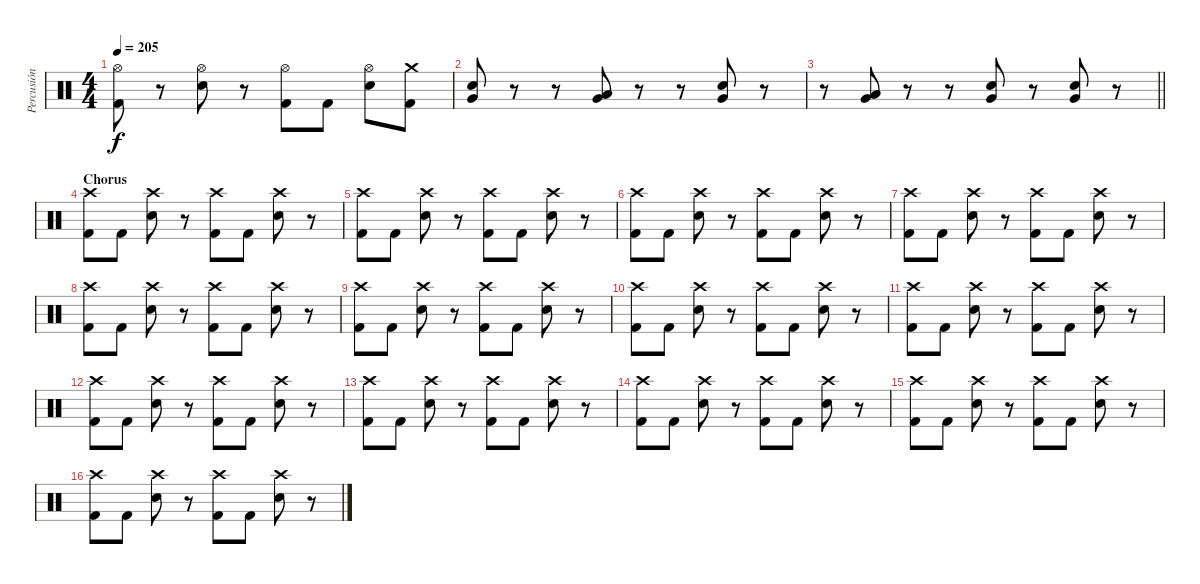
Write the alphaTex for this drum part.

\track ("Percusión" "Percusión") {instrument percussion}
\staff {score}
\articulation defaults
\ts (4 4)
\tempo 205
\clef neutral
\ks c
("Hi-Hat (open)" "Kick (hit) 2").8{dy f} r.8 ("Hi-Hat (open)" "Electric Snare (hit)").8 r.8 ("Hi-Hat (open)" "Kick (hit) 2").8 "Kick (hit) 2".8 ("Hi-Hat (open)" "Electric Snare (hit)").8 ("Crash medium (hit)" "Kick (hit) 2").8 |
("Very Low Tom (hit)" "Electric Snare (hit)").8 r.8 r.8 ("Low Tom (hit)" "Very Low Tom (hit)").8 r.8 r.8 ("Very Low Tom (hit)" "Electric Snare (hit)").8 r.8 |
\barLineRight lightlight
r.8 ("Low Tom (hit)" "Very Low Tom (hit)").8 r.8 r.8 ("Very Low Tom (hit)" "Electric Snare (hit)").8 r.8 ("Very Low Tom (hit)" "Electric Snare (hit)").8 r.8 |
\section ("" "Chorus")
("Crash high (hit)" "Kick (hit) 2").8 "Kick (hit) 2".8 ("Crash high (hit)" "Electric Snare (hit)").8 r.8 ("Crash high (hit)" "Kick (hit) 2").8 "Kick (hit) 2".8 ("Crash high (hit)" "Electric Snare (hit)").8 r.8 |
("Crash high (hit)" "Kick (hit) 2").8 "Kick (hit) 2".8 ("Crash high (hit)" "Electric Snare (hit)").8 r.8 ("Crash high (hit)" "Kick (hit) 2").8 "Kick (hit) 2".8 ("Crash high (hit)" "Electric Snare (hit)").8 r.8 |
("Crash high (hit)" "Kick (hit) 2").8 "Kick (hit) 2".8 ("Crash high (hit)" "Electric Snare (hit)").8 r.8 ("Crash high (hit)" "Kick (hit) 2").8 "Kick (hit) 2".8 ("Crash high (hit)" "Electric Snare (hit)").8 r.8 |
("Crash high (hit)" "Kick (hit) 2").8 "Kick (hit) 2".8 ("Crash high (hit)" "Electric Snare (hit)").8 r.8 ("Crash high (hit)" "Kick (hit) 2").8 "Kick (hit) 2".8 ("Crash high (hit)" "Electric Snare (hit)").8 r.8 |
("Crash high (hit)" "Kick (hit) 2").8 "Kick (hit) 2".8 ("Crash high (hit)" "Electric Snare (hit)").8 r.8 ("Crash high (hit)" "Kick (hit) 2").8 "Kick (hit) 2".8 ("Crash high (hit)" "Electric Snare (hit)").8 r.8 |
("Crash high (hit)" "Kick (hit) 2").8 "Kick (hit) 2".8 ("Crash high (hit)" "Electric Snare (hit)").8 r.8 ("Crash high (hit)" "Kick (hit) 2").8 "Kick (hit) 2".8 ("Crash high (hit)" "Electric Snare (hit)").8 r.8 |
("Crash high (hit)" "Kick (hit) 2").8 "Kick (hit) 2".8 ("Crash high (hit)" "Electric Snare (hit)").8 r.8 ("Crash high (hit)" "Kick (hit) 2").8 "Kick (hit) 2".8 ("Crash high (hit)" "Electric Snare (hit)").8 r.8 |
("Crash high (hit)" "Kick (hit) 2").8 "Kick (hit) 2".8 ("Crash high (hit)" "Electric Snare (hit)").8 r.8 ("Crash high (hit)" "Kick (hit) 2").8 "Kick (hit) 2".8 ("Crash high (hit)" "Electric Snare (hit)").8 r.8 |
("Crash high (hit)" "Kick (hit) 2").8 "Kick (hit) 2".8 ("Crash high (hit)" "Electric Snare (hit)").8 r.8 ("Crash high (hit)" "Kick (hit) 2").8 "Kick (hit) 2".8 ("Crash high (hit)" "Electric Snare (hit)").8 r.8 |
("Crash high (hit)" "Kick (hit) 2").8 "Kick (hit) 2".8 ("Crash high (hit)" "Electric Snare (hit)").8 r.8 ("Crash high (hit)" "Kick (hit) 2").8 "Kick (hit) 2".8 ("Crash high (hit)" "Electric Snare (hit)").8 r.8 |
("Crash high (hit)" "Kick (hit) 2").8 "Kick (hit) 2".8 ("Crash high (hit)" "Electric Snare (hit)").8 r.8 ("Crash high (hit)" "Kick (hit) 2").8 "Kick (hit) 2".8 ("Crash high (hit)" "Electric Snare (hit)").8 r.8 |
("Crash high (hit)" "Kick (hit) 2").8 "Kick (hit) 2".8 ("Crash high (hit)" "Electric Snare (hit)").8 r.8 ("Crash high (hit)" "Kick (hit) 2").8 "Kick (hit) 2".8 ("Crash high (hit)" "Electric Snare (hit)").8 r.8 |
("Crash high (hit)" "Kick (hit) 2").8 "Kick (hit) 2".8 ("Crash high (hit)" "Electric Snare (hit)").8 r.8 ("Crash high (hit)" "Kick (hit) 2").8 "Kick (hit) 2".8 ("Crash high (hit)" "Electric Snare (hit)").8 r.8
